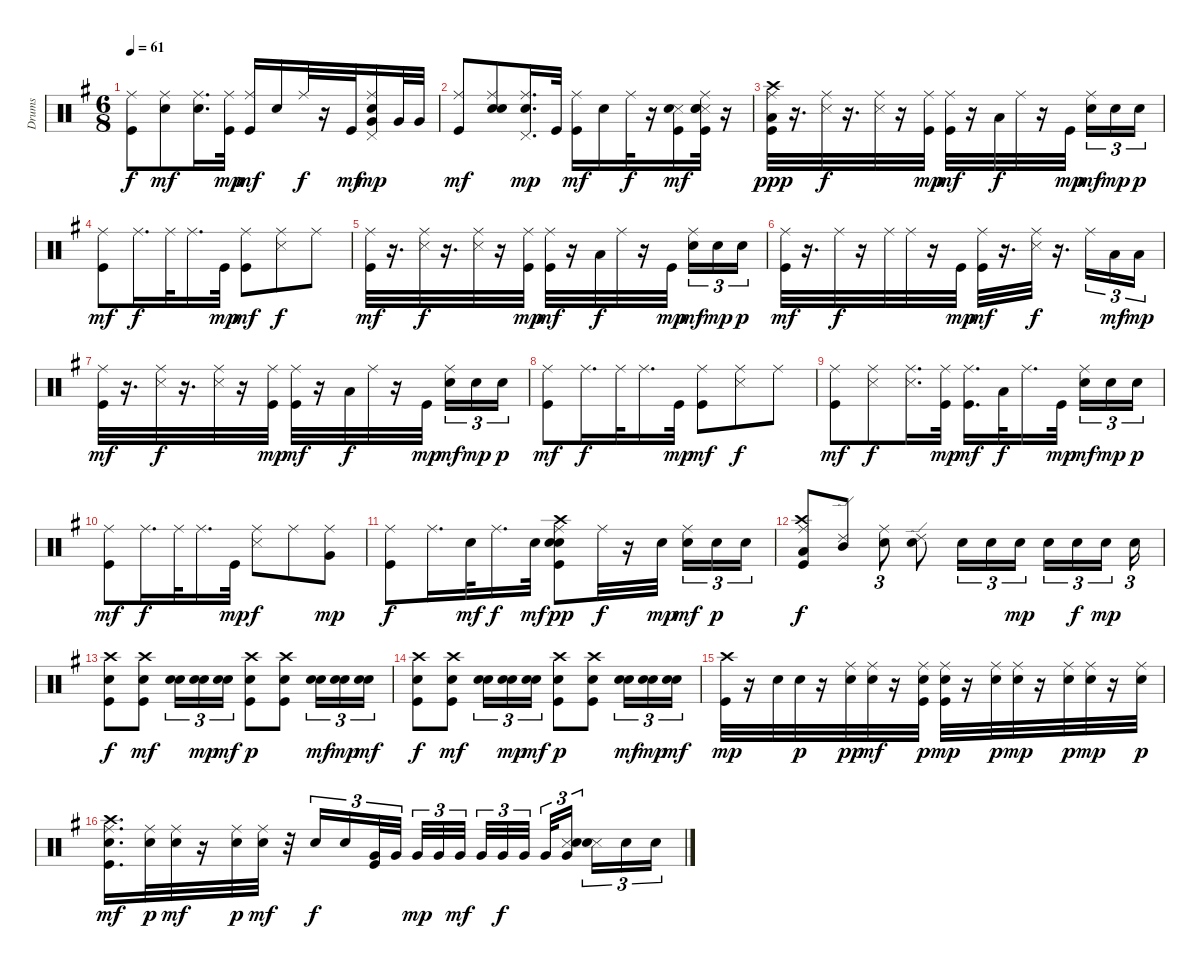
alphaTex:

\track ("Drums" "Drums") {instrument percussion}
\staff {score}
\articulation defaults
\ts (6 8)
\tempo 61
\clef neutral
\ks g
("Kick (hit)" "Ride (middle)").8{dy f} ("Electric Snare (hit)" "Ride (middle)").8{dy mf} ("Electric Snare (hit)" "Ride (middle)").16{d} ("Kick (hit)" "Ride (middle)").32{dy mp} ("Kick (hit)" "Ride (middle)").16{dy mf} "Electric Snare (hit)".16 "Ride (middle)".32{dy f} r.16 "Kick (hit)".32{dy mf} ("Electric Snare (hit)" "Ride (middle)" "Very Low Tom (hit)" "Pedal Hi-Hat (hit)").16{dy mp} "Very Low Tom (hit)".32 "Very Low Tom (hit)".32 |
("Kick (hit)" "Ride (middle)").8{dy mf} ("Snare (hit) 2" "Electric Snare (hit)" "Ride (middle)").8 ("Electric Snare (hit)" "Ride (middle)" "Pedal Hi-Hat (hit)").16{d dy mp} "Kick (hit)".32 ("Kick (hit)" "Ride (middle)").16{dy mf} "Electric Snare (hit)".16 "Ride (middle)".32{dy f} r.16 ("Kick (hit)" "Snare (side stick) 3" "Electric Snare (hit)").16{dy mf} ("Kick (hit)" "Snare (side stick) 3" "Electric Snare (hit)" "Electric Snare (hit)" "Ride (middle)").32 r.16 |
("Kick (hit)" "Low Floor Tom (hit)" "Crash high (hit)" "Ride (middle)").32{dy ppp} r.16{d} ("Snare (side stick) 3" "Ride (middle)").32{dy f} r.16{d} ("Snare (side stick) 3" "Ride (middle)").32 r.16 ("Kick (hit)" "Ride (middle)").32{dy mp} ("Kick (hit)" "Ride (middle)").32{dy mf} r.16 "Low Tom (hit)".32{dy f} "Ride (middle)".32 r.16 "Kick (hit)".32{dy mp beam splitsecondary} ("Electric Snare (hit)" "Ride (middle)").16{tu (3 2) dy mf} "Electric Snare (hit)".16{tu (3 2) dy mp} "Electric Snare (hit)".16{tu (3 2) dy p} |
("Kick (hit)" "Ride (middle)").8{dy mf} "Ride (middle)".16{d dy f} "Ride (middle)".32 "Ride (middle)".16{d} "Kick (hit)".32{dy mp} ("Kick (hit)" "Ride (middle)").8{dy mf} ("Snare (side stick) 3" "Ride (middle)").8{dy f} "Ride (middle)".8 |
("Kick (hit)" "Ride (middle)").32{dy mf} r.16{d} ("Snare (side stick) 3" "Ride (middle)").32{dy f} r.16{d} ("Snare (side stick) 3" "Ride (middle)").32 r.16 ("Kick (hit)" "Ride (middle)").32{dy mp} ("Kick (hit)" "Ride (middle)").32{dy mf} r.16 "Low Tom (hit)".32{dy f} "Ride (middle)".32 r.16 "Kick (hit)".32{dy mp beam splitsecondary} ("Electric Snare (hit)" "Ride (middle)").16{tu (3 2) dy mf} "Electric Snare (hit)".16{tu (3 2) dy mp} "Electric Snare (hit)".16{tu (3 2) dy p} |
("Kick (hit)" "Ride (middle)").32{dy mf} r.16{d} "Ride (middle)".32{dy f} r.16 "Ride (middle)".32 "Ride (middle)".32 r.16 "Kick (hit)".32{dy mp} ("Kick (hit)" "Ride (middle)").32{dy mf} r.16{d} ("Snare (side stick) 3" "Ride (middle)").32{dy f} r.16{d} "Ride (middle)".16{tu (3 2)} "Low Tom (hit)".16{tu (3 2) dy mf} "Low Tom (hit)".16{tu (3 2) dy mp} |
("Kick (hit)" "Ride (middle)").32{dy mf} r.16{d} ("Snare (side stick) 3" "Ride (middle)").32{dy f} r.16{d} ("Snare (side stick) 3" "Ride (middle)").32 r.16 ("Kick (hit)" "Ride (middle)").32{dy mp} ("Kick (hit)" "Ride (middle)").32{dy mf} r.16 "Low Tom (hit)".32{dy f} "Ride (middle)".32 r.16 "Kick (hit)".32{dy mp beam splitsecondary} ("Electric Snare (hit)" "Ride (middle)").16{tu (3 2) dy mf} "Electric Snare (hit)".16{tu (3 2) dy mp} "Electric Snare (hit)".16{tu (3 2) dy p} |
("Kick (hit)" "Ride (middle)").8{dy mf} "Ride (middle)".16{d dy f} "Ride (middle)".32 "Ride (middle)".16{d} "Kick (hit)".32{dy mp} ("Kick (hit)" "Ride (middle)").8{dy mf} ("Snare (side stick) 3" "Ride (middle)").8{dy f} "Ride (middle)".8 |
("Kick (hit)" "Ride (middle)").8{dy mf} ("Snare (side stick) 3" "Ride (middle)").8{dy f} ("Snare (side stick) 3" "Ride (middle)").16{d} ("Kick (hit)" "Ride (middle)").32{dy mp} ("Kick (hit)" "Ride (middle)").16{d dy mf} "Low Tom (hit)".32{dy f} "Ride (middle)".16{d} "Kick (hit)".32{dy mp beam splitsecondary} ("Electric Snare (hit)" "Ride (middle)").16{tu (3 2) dy mf} "Electric Snare (hit)".16{tu (3 2) dy mp} "Electric Snare (hit)".16{tu (3 2) dy p} |
("Kick (hit)" "Ride (middle)").8{dy mf} "Ride (middle)".16{d dy f} "Ride (middle)".32 "Ride (middle)".16{d} "Kick (hit)".32{dy mp} ("Snare (side stick) 3" "Ride (middle)").8{dy f} "Ride (middle)".8 ("Very Low Tom (hit)" "Ride (middle)").8{dy mp} |
("Kick (hit)" "Ride (middle)").8{dy f} "Ride (middle)".16{d} "Snare (hit) 2".32{dy mf} "Ride (middle)".16{d dy f} "Electric Snare (hit)".32{dy mf} ("Kick (hit)" "Snare (hit) 2" "Electric Snare (hit)" "Ride (middle)" "Crash high (hit)").8{dy pp} "Ride (middle)".32{dy f} r.16 "Electric Snare (hit)".32{dy mp beam splitsecondary} ("Electric Snare (hit)" "Ride (middle)").16{tu (3 2) dy mf} "Electric Snare (hit)".16{tu (3 2) dy p} "Electric Snare (hit)".16{tu (3 2)} |
("Kick (hit)" "Low Tom (hit)" "Crash high (hit)" "Ride (middle)").8{dy f} ("Mid Tom (hit)" "Ride (edge) 2").8 ("Electric Snare (hit)" "Ride (middle)").8{tu (3 2)} ("Electric Snare (hit)" "Ride (edge) 2").8 "Electric Snare (hit)".16{tu (3 2)} "Electric Snare (hit)".16{tu (3 2)} "Electric Snare (hit)".16{tu (3 2) dy mp beam splitsecondary} "Electric Snare (hit)".16{tu (3 2)} "Electric Snare (hit)".16{tu (3 2) dy f} "Electric Snare (hit)".16{tu (3 2) dy mp beam splitsecondary} "Electric Snare (hit)".16{tu (3 2)} |
("Kick (hit)" "Electric Snare (hit)" "Crash high (hit)").8{dy f} ("Kick (hit)" "Electric Snare (hit)" "Crash high (hit)").8{dy mf} ("Snare (hit) 2" "Electric Snare (hit)").16{tu (3 2)} ("Snare (hit) 2" "Electric Snare (hit)").16{tu (3 2) dy mp} ("Snare (hit) 2" "Electric Snare (hit)").16{tu (3 2) dy mf} ("Kick (hit)" "Electric Snare (hit)" "Crash high (hit)").8{dy p} ("Kick (hit)" "Electric Snare (hit)" "Crash high (hit)").8 ("Snare (hit) 2" "Electric Snare (hit)").16{tu (3 2) dy mf} ("Snare (hit) 2" "Electric Snare (hit)").16{tu (3 2) dy mp} ("Snare (hit) 2" "Electric Snare (hit)").16{tu (3 2) dy mf} |
("Kick (hit)" "Electric Snare (hit)" "Crash high (hit)").8{dy f} ("Kick (hit)" "Electric Snare (hit)" "Crash high (hit)").8{dy mf} ("Snare (hit) 2" "Electric Snare (hit)").16{tu (3 2)} ("Snare (hit) 2" "Electric Snare (hit)").16{tu (3 2) dy mp} ("Snare (hit) 2" "Electric Snare (hit)").16{tu (3 2) dy mf} ("Kick (hit)" "Electric Snare (hit)" "Crash high (hit)").8{dy p} ("Kick (hit)" "Electric Snare (hit)" "Crash high (hit)").8 ("Snare (hit) 2" "Electric Snare (hit)").16{tu (3 2) dy mf} ("Snare (hit) 2" "Electric Snare (hit)").16{tu (3 2) dy mp} ("Snare (hit) 2" "Electric Snare (hit)").16{tu (3 2) dy mf} |
("Kick (hit)" "Crash high (hit)").32{dy mp} r.16 "Electric Snare (hit)".32 "Electric Snare (hit)".32{dy p} r.16 ("Electric Snare (hit)" "Ride (middle)").32{dy pp} ("Electric Snare (hit)" "Ride (middle)").32{dy mf} r.16 ("Ride (middle)" "Kick (hit)" "Electric Snare (hit)").32{dy p} ("Kick (hit)" "Electric Snare (hit)" "Ride (middle)").32{dy mp} r.16 ("Ride (middle)" "Electric Snare (hit)").32{dy p} ("Electric Snare (hit)" "Ride (middle)").32{dy mp} r.16 ("Electric Snare (hit)" "Ride (middle)").32{dy p} ("Electric Snare (hit)" "Ride (middle)").32{dy mp} r.16 ("Electric Snare (hit)" "Ride (middle)").32{dy p} |
("Kick (hit)" "Electric Snare (hit)" "Crash high (hit)" "Ride (middle)").16{d dy mf} ("Electric Snare (hit)" "Ride (middle)").32{dy p} ("Electric Snare (hit)" "Ride (middle)").32{dy mf} r.16 ("Electric Snare (hit)" "Ride (middle)").32{dy p} ("Electric Snare (hit)" "Ride (middle)").32{dy mf} r.32 "Electric Snare (hit)".16{tu (3 2) dy f} "Electric Snare (hit)".16{tu (3 2)} ("Kick (hit)" "Very Low Tom (hit)").32{tu (3 2)} "Very Low Tom (hit)".32{tu (3 2) beam splitsecondary} "Very Low Tom (hit)".32{tu (3 2) dy mp} "Very Low Tom (hit)".32{tu (3 2)} "Very Low Tom (hit)".32{tu (3 2) dy mf beam splitsecondary} "Very Low Tom (hit)".32{tu (3 2)} "Very Low Tom (hit)".32{tu (3 2) dy f} "Very Low Tom (hit)".32{tu (3 2) beam splitsecondary} "Very Low Tom (hit)".32{tu (3 2)} ("Very Low Tom (hit)" "Snare (side stick) 3" "Electric Snare (hit)").16{tu (3 2) beam splitsecondary} ("Snare (side stick) 3" "Electric Snare (hit)").16{tu (3 2)} "Electric Snare (hit)".16{tu (3 2)} "Electric Snare (hit)".16{tu (3 2)}
